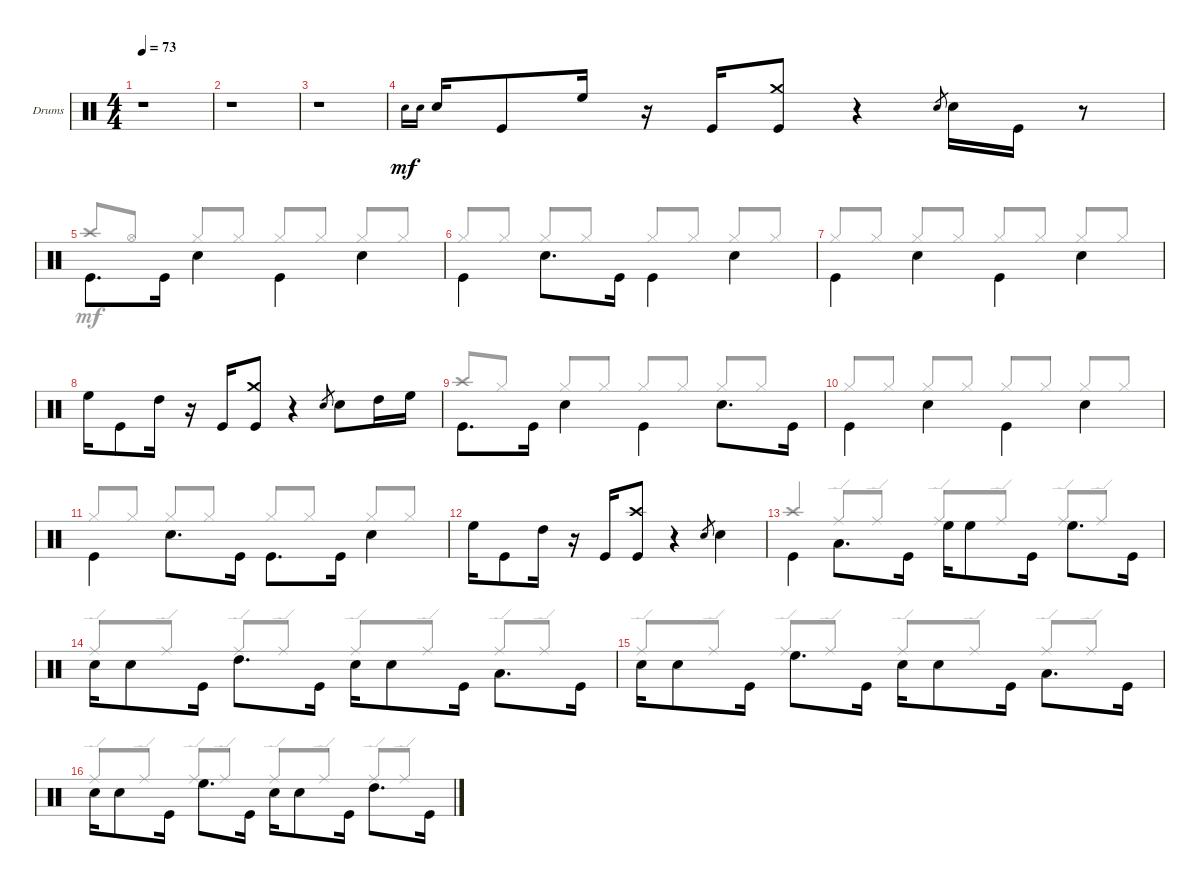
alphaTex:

\defaultSystemsLayout 4
\bracketExtendMode groupsimilarinstruments
\firstSystemTrackNameOrientation horizontal
\otherSystemsTrackNameOrientation horizontal
\track ("Drumkit" "Drums") {solo instrument percussion}
\staff {score}
\articulation defaults
\voice
\ts (4 4)
\tempo 73
\clef neutral
\ks c
r.1{dy mf} |
r.1 |
r.1 |
"Snare (hit) 2".16{gr onbeat beam invert} "Snare (hit) 2".16{gr onbeat} "Snare (hit) 2".16 "Kick (hit)".8 "High Floor Tom (hit)".16 r.16 "Kick (hit)".16{beam invert} ("Kick (hit)" "Crash medium (hit)").8 r.4 "Snare (hit) 2".8{gr} "Snare (hit) 2".16{beam invert} "Kick (hit)".16 r.8 |
"Kick (hit)".8{d beam invert} "Kick (hit)".16 "Snare (hit) 2".4{beam invert} "Kick (hit)".4{beam invert} "Snare (hit) 2".4{beam invert} |
"Kick (hit)".4{beam invert} "Snare (hit) 2".8{d beam invert} "Kick (hit)".16 "Kick (hit)".4{beam invert} "Snare (hit) 2".4{beam invert} |
"Kick (hit)".4{beam invert} "Snare (hit) 2".4{beam invert} "Kick (hit)".4{beam invert} "Snare (hit) 2".4{beam invert} |
"High Floor Tom (hit)".16{beam invert} "Kick (hit)".8 "High Tom (hit)".16 r.16 "Kick (hit)".16{beam invert} ("Kick (hit)" "Crash medium (hit)").8 r.4 "Snare (hit) 2".8{gr} "Snare (hit) 2".8 "High Tom (hit)".16 "High Floor Tom (hit)".16 |
"Kick (hit)".8{d beam invert} "Kick (hit)".16 "Snare (hit) 2".4{beam invert} "Kick (hit)".4{beam invert} "Snare (hit) 2".8{d beam invert} "Kick (hit)".16 |
"Kick (hit)".4{beam invert} "Snare (hit) 2".4{beam invert} "Kick (hit)".4{beam invert} "Snare (hit) 2".4{beam invert} |
"Kick (hit)".4{beam invert} "Snare (hit) 2".8{d beam invert} "Kick (hit)".16 "Kick (hit)".8{d beam invert} "Kick (hit)".16 "Snare (hit) 2".4{beam invert} |
"High Floor Tom (hit)".16{beam invert} "Kick (hit)".8 "High Tom (hit)".16 r.16 "Kick (hit)".16{beam invert} ("Kick (hit)" "Crash high (hit)").8 r.4 "Snare (hit) 2".8{gr} "Snare (hit) 2".4 |
"Kick (hit)".4{beam invert} "Low Tom (hit)".8{d beam invert} "Kick (hit)".16 "High Floor Tom (hit)".16{beam invert} "High Floor Tom (hit)".8 "Kick (hit)".16 "High Floor Tom (hit)".8{d beam invert} "Kick (hit)".16 |
"Snare (hit) 2".16{beam invert} "Snare (hit) 2".8 "Kick (hit)".16 "High Tom (hit)".8{d beam invert} "Kick (hit)".16 "Snare (hit) 2".16{beam invert} "Snare (hit) 2".8 "Kick (hit)".16 "Low Tom (hit)".8{d beam invert} "Kick (hit)".16 |
"Snare (hit) 2".16{beam invert} "Snare (hit) 2".8 "Kick (hit)".16 "High Floor Tom (hit)".8{d beam invert} "Kick (hit)".16 "Snare (hit) 2".16{beam invert} "Snare (hit) 2".8 "Kick (hit)".16 "Low Tom (hit)".8{d beam invert} "Kick (hit)".16 |
"Snare (hit) 2".16{beam invert} "Snare (hit) 2".8 "Kick (hit)".16 "High Floor Tom (hit)".8{d beam invert} "Kick (hit)".16 "Snare (hit) 2".16{beam invert} "Snare (hit) 2".8 "Kick (hit)".16 "High Tom (hit)".8{d beam invert} "Kick (hit)".16
\voice
\clef neutral
\ottava regular
\simile none
\ks c
|
|
|
|
"Crash high (hit)".8{beam invert} "Hi-Hat (open)".8 "Hi-Hat (closed)".8{beam invert} "Hi-Hat (closed)".8 "Hi-Hat (closed)".8{beam invert} "Hi-Hat (closed)".8 "Hi-Hat (closed)".8{beam invert} "Hi-Hat (closed)".8 |
"Hi-Hat (closed)".8{beam invert} "Hi-Hat (closed)".8 "Hi-Hat (closed)".8{beam invert} "Hi-Hat (closed)".8 "Hi-Hat (closed)".8{beam invert} "Hi-Hat (closed)".8 "Hi-Hat (closed)".8{beam invert} "Hi-Hat (closed)".8 |
"Hi-Hat (closed)".8{beam invert} "Hi-Hat (closed)".8 "Hi-Hat (closed)".8{beam invert} "Hi-Hat (closed)".8 "Hi-Hat (closed)".8{beam invert} "Hi-Hat (closed)".8 "Hi-Hat (closed)".8{beam invert} "Hi-Hat (closed)".8 |
|
"Crash high (hit)".8{beam invert} "Hi-Hat (closed)".8 "Hi-Hat (closed)".8{beam invert} "Hi-Hat (closed)".8 "Hi-Hat (closed)".8{beam invert} "Hi-Hat (closed)".8 "Hi-Hat (closed)".8{beam invert} "Hi-Hat (closed)".8 |
"Hi-Hat (closed)".8{beam invert} "Hi-Hat (closed)".8 "Hi-Hat (closed)".8{beam invert} "Hi-Hat (closed)".8 "Hi-Hat (closed)".8{beam invert} "Hi-Hat (closed)".8 "Hi-Hat (closed)".8{beam invert} "Hi-Hat (closed)".8 |
"Hi-Hat (closed)".8{beam invert} "Hi-Hat (closed)".8 "Hi-Hat (closed)".8{beam invert} "Hi-Hat (closed)".8 "Hi-Hat (closed)".8{beam invert} "Hi-Hat (closed)".8 "Hi-Hat (closed)".8{beam invert} "Hi-Hat (closed)".8 |
|
"Crash high (hit)".4{beam invert} "Ride (edge)".8{beam invert} "Ride (edge)".8 "Ride (edge)".8{beam invert} "Ride (edge)".8 "Ride (edge)".8{beam invert} "Ride (edge)".8 |
"Ride (edge)".8{beam invert} "Ride (edge)".8 "Ride (edge)".8{beam invert} "Ride (edge)".8 "Ride (edge)".8{beam invert} "Ride (edge)".8 "Ride (edge)".8{beam invert} "Ride (edge)".8 |
"Ride (edge)".8{beam invert} "Ride (edge)".8 "Ride (edge)".8{beam invert} "Ride (edge)".8 "Ride (edge)".8{beam invert} "Ride (edge)".8 "Ride (edge)".8{beam invert} "Ride (edge)".8 |
"Ride (edge)".8{beam invert} "Ride (edge)".8 "Ride (edge)".8{beam invert} "Ride (edge)".8 "Ride (edge)".8{beam invert} "Ride (edge)".8 "Ride (edge)".8{beam invert} "Ride (edge)".8
